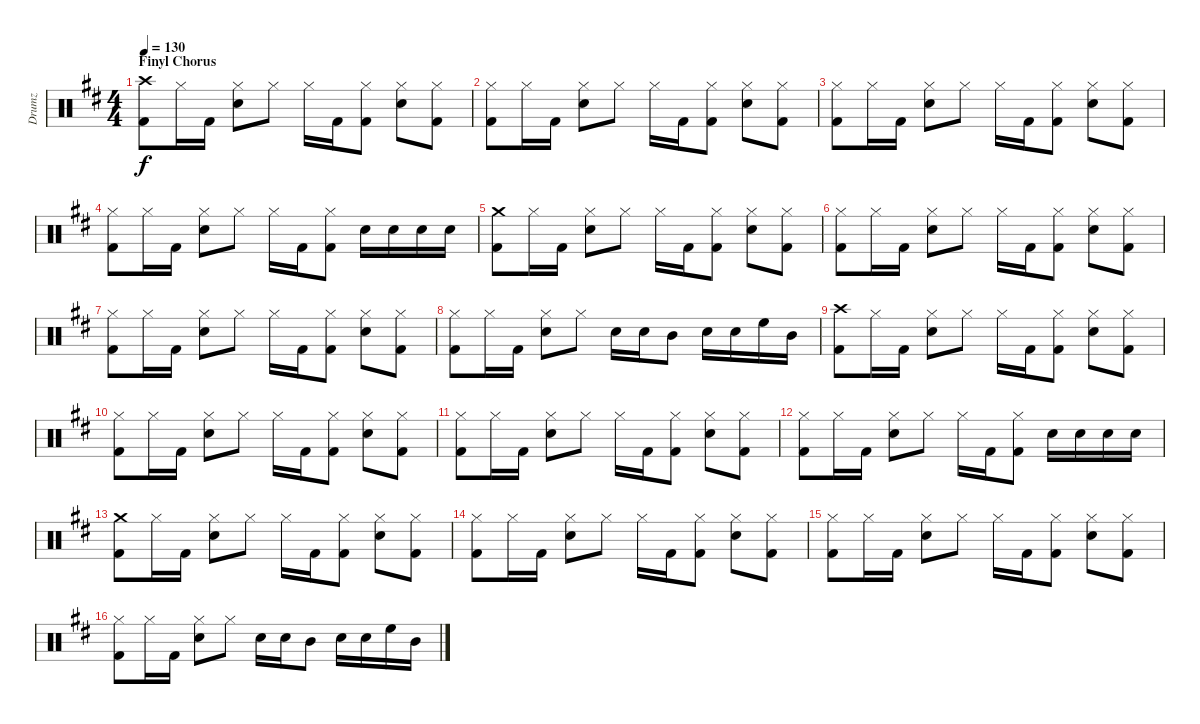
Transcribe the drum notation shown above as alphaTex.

\track ("Drumz" "Drumz") {instrument percussion}
\staff {score}
\articulation defaults
\ts (4 4)
\section ("" "Finyl Chorus")
\tempo 130
\clef neutral
\ks d
("Crash high (hit)" "Kick (hit) 2").8{dy f} "Hi-Hat (closed)".16 "Kick (hit) 2".16 ("Hi-Hat (closed)" "Snare (hit) 2").8 "Hi-Hat (closed)".8 "Hi-Hat (closed)".16 "Kick (hit) 2".16 ("Hi-Hat (closed)" "Kick (hit) 2").8 ("Hi-Hat (closed)" "Snare (hit) 2").8 ("Hi-Hat (closed)" "Kick (hit) 2").8 |
("Hi-Hat (closed)" "Kick (hit) 2").8 "Hi-Hat (closed)".16 "Kick (hit) 2".16 ("Hi-Hat (closed)" "Snare (hit) 2").8 "Hi-Hat (closed)".8 "Hi-Hat (closed)".16 "Kick (hit) 2".16 ("Hi-Hat (closed)" "Kick (hit) 2").8 ("Hi-Hat (closed)" "Snare (hit) 2").8 ("Hi-Hat (closed)" "Kick (hit) 2").8 |
("Hi-Hat (closed)" "Kick (hit) 2").8 "Hi-Hat (closed)".16 "Kick (hit) 2".16 ("Hi-Hat (closed)" "Snare (hit) 2").8 "Hi-Hat (closed)".8 "Hi-Hat (closed)".16 "Kick (hit) 2".16 ("Hi-Hat (closed)" "Kick (hit) 2").8 ("Hi-Hat (closed)" "Snare (hit) 2").8 ("Hi-Hat (closed)" "Kick (hit) 2").8 |
("Hi-Hat (closed)" "Kick (hit) 2").8 "Hi-Hat (closed)".16 "Kick (hit) 2".16 ("Hi-Hat (closed)" "Snare (hit) 2").8 "Hi-Hat (closed)".8 "Hi-Hat (closed)".16 "Kick (hit) 2".16 ("Hi-Hat (closed)" "Kick (hit) 2").8 "Snare (hit) 2".16 "Snare (hit) 2".16 "Snare (hit) 2".16 "Snare (hit) 2".16 |
("Crash medium (hit)" "Kick (hit) 2").8 "Hi-Hat (closed)".16 "Kick (hit) 2".16 ("Hi-Hat (closed)" "Snare (hit) 2").8 "Hi-Hat (closed)".8 "Hi-Hat (closed)".16 "Kick (hit) 2".16 ("Hi-Hat (closed)" "Kick (hit) 2").8 ("Hi-Hat (closed)" "Snare (hit) 2").8 ("Hi-Hat (closed)" "Kick (hit) 2").8 |
("Hi-Hat (closed)" "Kick (hit) 2").8 "Hi-Hat (closed)".16 "Kick (hit) 2".16 ("Hi-Hat (closed)" "Snare (hit) 2").8 "Hi-Hat (closed)".8 "Hi-Hat (closed)".16 "Kick (hit) 2".16 ("Hi-Hat (closed)" "Kick (hit) 2").8 ("Hi-Hat (closed)" "Snare (hit) 2").8 ("Hi-Hat (closed)" "Kick (hit) 2").8 |
("Hi-Hat (closed)" "Kick (hit) 2").8 "Hi-Hat (closed)".16 "Kick (hit) 2".16 ("Hi-Hat (closed)" "Snare (hit) 2").8 "Hi-Hat (closed)".8 "Hi-Hat (closed)".16 "Kick (hit) 2".16 ("Hi-Hat (closed)" "Kick (hit) 2").8 ("Hi-Hat (closed)" "Snare (hit) 2").8 ("Hi-Hat (closed)" "Kick (hit) 2").8 |
("Hi-Hat (closed)" "Kick (hit) 2").8 "Hi-Hat (closed)".16 "Kick (hit) 2".16 ("Hi-Hat (closed)" "Snare (hit) 2").8 "Hi-Hat (closed)".8 "Snare (hit) 2".16 "Snare (hit) 2".16 "Mid Tom (hit)".8 "Snare (hit) 2".16 "Snare (hit) 2".16 "High Floor Tom (hit)".16 "Mid Tom (hit)".16 |
("Crash high (hit)" "Kick (hit) 2").8 "Hi-Hat (closed)".16 "Kick (hit) 2".16 ("Hi-Hat (closed)" "Snare (hit) 2").8 "Hi-Hat (closed)".8 "Hi-Hat (closed)".16 "Kick (hit) 2".16 ("Hi-Hat (closed)" "Kick (hit) 2").8 ("Hi-Hat (closed)" "Snare (hit) 2").8 ("Hi-Hat (closed)" "Kick (hit) 2").8 |
("Hi-Hat (closed)" "Kick (hit) 2").8 "Hi-Hat (closed)".16 "Kick (hit) 2".16 ("Hi-Hat (closed)" "Snare (hit) 2").8 "Hi-Hat (closed)".8 "Hi-Hat (closed)".16 "Kick (hit) 2".16 ("Hi-Hat (closed)" "Kick (hit) 2").8 ("Hi-Hat (closed)" "Snare (hit) 2").8 ("Hi-Hat (closed)" "Kick (hit) 2").8 |
("Hi-Hat (closed)" "Kick (hit) 2").8 "Hi-Hat (closed)".16 "Kick (hit) 2".16 ("Hi-Hat (closed)" "Snare (hit) 2").8 "Hi-Hat (closed)".8 "Hi-Hat (closed)".16 "Kick (hit) 2".16 ("Hi-Hat (closed)" "Kick (hit) 2").8 ("Hi-Hat (closed)" "Snare (hit) 2").8 ("Hi-Hat (closed)" "Kick (hit) 2").8 |
("Hi-Hat (closed)" "Kick (hit) 2").8 "Hi-Hat (closed)".16 "Kick (hit) 2".16 ("Hi-Hat (closed)" "Snare (hit) 2").8 "Hi-Hat (closed)".8 "Hi-Hat (closed)".16 "Kick (hit) 2".16 ("Hi-Hat (closed)" "Kick (hit) 2").8 "Snare (hit) 2".16 "Snare (hit) 2".16 "Snare (hit) 2".16 "Snare (hit) 2".16 |
("Crash medium (hit)" "Kick (hit) 2").8 "Hi-Hat (closed)".16 "Kick (hit) 2".16 ("Hi-Hat (closed)" "Snare (hit) 2").8 "Hi-Hat (closed)".8 "Hi-Hat (closed)".16 "Kick (hit) 2".16 ("Hi-Hat (closed)" "Kick (hit) 2").8 ("Hi-Hat (closed)" "Snare (hit) 2").8 ("Hi-Hat (closed)" "Kick (hit) 2").8 |
("Hi-Hat (closed)" "Kick (hit) 2").8 "Hi-Hat (closed)".16 "Kick (hit) 2".16 ("Hi-Hat (closed)" "Snare (hit) 2").8 "Hi-Hat (closed)".8 "Hi-Hat (closed)".16 "Kick (hit) 2".16 ("Hi-Hat (closed)" "Kick (hit) 2").8 ("Hi-Hat (closed)" "Snare (hit) 2").8 ("Hi-Hat (closed)" "Kick (hit) 2").8 |
("Hi-Hat (closed)" "Kick (hit) 2").8 "Hi-Hat (closed)".16 "Kick (hit) 2".16 ("Hi-Hat (closed)" "Snare (hit) 2").8 "Hi-Hat (closed)".8 "Hi-Hat (closed)".16 "Kick (hit) 2".16 ("Hi-Hat (closed)" "Kick (hit) 2").8 ("Hi-Hat (closed)" "Snare (hit) 2").8 ("Hi-Hat (closed)" "Kick (hit) 2").8 |
("Hi-Hat (closed)" "Kick (hit) 2").8 "Hi-Hat (closed)".16 "Kick (hit) 2".16 ("Hi-Hat (closed)" "Snare (hit) 2").8 "Hi-Hat (closed)".8 "Snare (hit) 2".16 "Snare (hit) 2".16 "Mid Tom (hit)".8 "Snare (hit) 2".16 "Snare (hit) 2".16 "High Floor Tom (hit)".16 "Mid Tom (hit)".16
